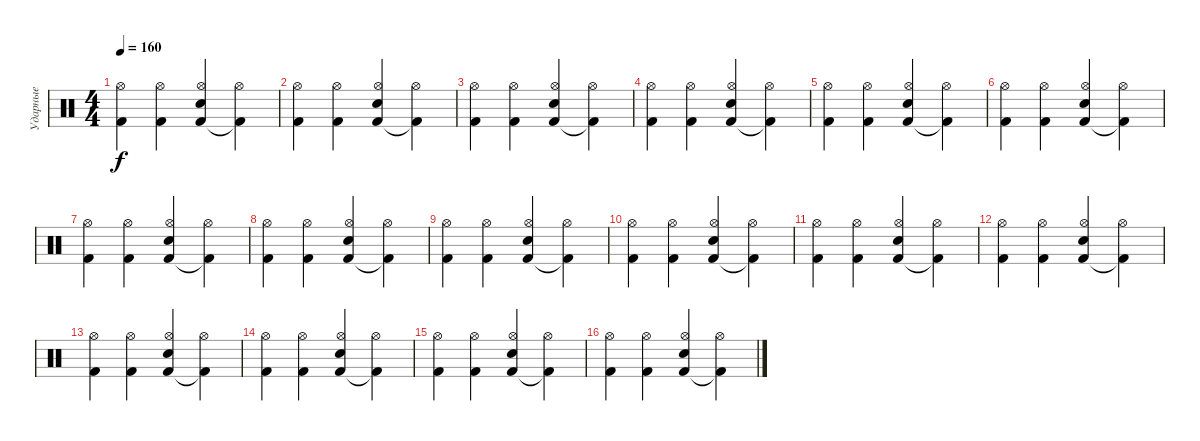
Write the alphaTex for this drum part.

\track ("Ударные" "Ударные") {instrument percussion}
\staff {score}
\articulation defaults
\ts (4 4)
\tempo 160
\clef neutral
\ks c
("Kick (hit) 2" "Hi-Hat (open)").4{dy f} ("Kick (hit) 2" "Hi-Hat (open)").4 ("Kick (hit) 2" "Electric Snare (hit)" "Hi-Hat (open)").4 ("Kick (hit) 2"{t} "Hi-Hat (open)").4 |
("Kick (hit) 2" "Hi-Hat (open)").4 ("Kick (hit) 2" "Hi-Hat (open)").4 ("Kick (hit) 2" "Electric Snare (hit)" "Hi-Hat (open)").4 ("Kick (hit) 2"{t} "Hi-Hat (open)").4 |
("Kick (hit) 2" "Hi-Hat (open)").4 ("Kick (hit) 2" "Hi-Hat (open)").4 ("Kick (hit) 2" "Electric Snare (hit)" "Hi-Hat (open)").4 ("Kick (hit) 2"{t} "Hi-Hat (open)").4 |
("Kick (hit) 2" "Hi-Hat (open)").4 ("Kick (hit) 2" "Hi-Hat (open)").4 ("Kick (hit) 2" "Electric Snare (hit)" "Hi-Hat (open)").4 ("Kick (hit) 2"{t} "Hi-Hat (open)").4 |
("Kick (hit) 2" "Hi-Hat (open)").4 ("Kick (hit) 2" "Hi-Hat (open)").4 ("Kick (hit) 2" "Electric Snare (hit)" "Hi-Hat (open)").4 ("Kick (hit) 2"{t} "Hi-Hat (open)").4 |
("Kick (hit) 2" "Hi-Hat (open)").4 ("Kick (hit) 2" "Hi-Hat (open)").4 ("Kick (hit) 2" "Electric Snare (hit)" "Hi-Hat (open)").4 ("Kick (hit) 2"{t} "Hi-Hat (open)").4 |
("Kick (hit) 2" "Hi-Hat (open)").4 ("Kick (hit) 2" "Hi-Hat (open)").4 ("Kick (hit) 2" "Electric Snare (hit)" "Hi-Hat (open)").4 ("Kick (hit) 2"{t} "Hi-Hat (open)").4 |
("Kick (hit) 2" "Hi-Hat (open)").4 ("Kick (hit) 2" "Hi-Hat (open)").4 ("Kick (hit) 2" "Electric Snare (hit)" "Hi-Hat (open)").4 ("Kick (hit) 2"{t} "Hi-Hat (open)").4 |
("Kick (hit) 2" "Hi-Hat (open)").4 ("Kick (hit) 2" "Hi-Hat (open)").4 ("Kick (hit) 2" "Electric Snare (hit)" "Hi-Hat (open)").4 ("Kick (hit) 2"{t} "Hi-Hat (open)").4 |
("Kick (hit) 2" "Hi-Hat (open)").4 ("Kick (hit) 2" "Hi-Hat (open)").4 ("Kick (hit) 2" "Electric Snare (hit)" "Hi-Hat (open)").4 ("Kick (hit) 2"{t} "Hi-Hat (open)").4 |
("Kick (hit) 2" "Hi-Hat (open)").4 ("Kick (hit) 2" "Hi-Hat (open)").4 ("Kick (hit) 2" "Electric Snare (hit)" "Hi-Hat (open)").4 ("Kick (hit) 2"{t} "Hi-Hat (open)").4 |
("Kick (hit) 2" "Hi-Hat (open)").4 ("Kick (hit) 2" "Hi-Hat (open)").4 ("Kick (hit) 2" "Electric Snare (hit)" "Hi-Hat (open)").4 ("Kick (hit) 2"{t} "Hi-Hat (open)").4 |
("Kick (hit) 2" "Hi-Hat (open)").4 ("Kick (hit) 2" "Hi-Hat (open)").4 ("Kick (hit) 2" "Electric Snare (hit)" "Hi-Hat (open)").4 ("Kick (hit) 2"{t} "Hi-Hat (open)").4 |
("Kick (hit) 2" "Hi-Hat (open)").4 ("Kick (hit) 2" "Hi-Hat (open)").4 ("Kick (hit) 2" "Electric Snare (hit)" "Hi-Hat (open)").4 ("Kick (hit) 2"{t} "Hi-Hat (open)").4 |
("Kick (hit) 2" "Hi-Hat (open)").4 ("Kick (hit) 2" "Hi-Hat (open)").4 ("Kick (hit) 2" "Electric Snare (hit)" "Hi-Hat (open)").4 ("Kick (hit) 2"{t} "Hi-Hat (open)").4 |
("Kick (hit) 2" "Hi-Hat (open)").4 ("Kick (hit) 2" "Hi-Hat (open)").4 ("Kick (hit) 2" "Electric Snare (hit)" "Hi-Hat (open)").4 ("Kick (hit) 2"{t} "Hi-Hat (open)").4
